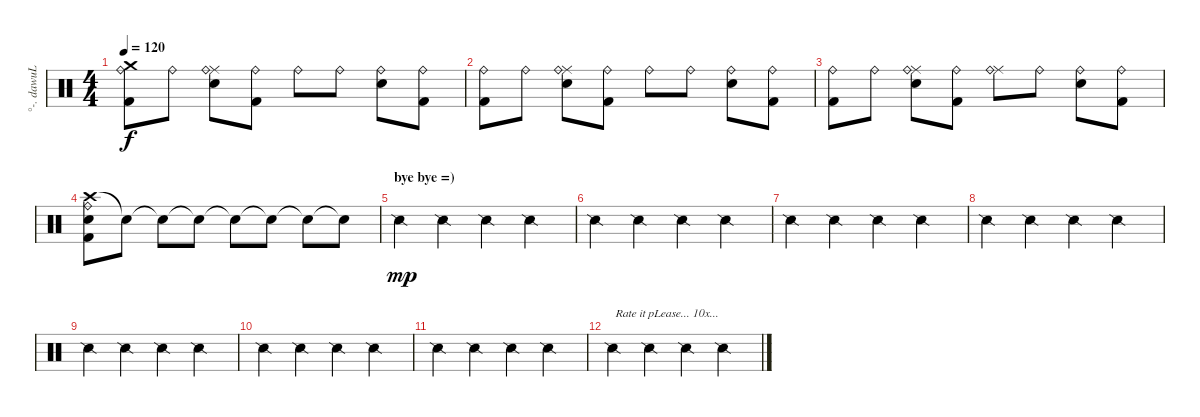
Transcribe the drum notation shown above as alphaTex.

\track ("°-. dawuL .-°" "°-. dawuL ") {instrument percussion}
\staff {score}
\articulation defaults
\ts (4 4)
\tempo 120
\clef neutral
\ks c
("Crash medium (hit)" "Kick (hit) 2" "Ride (bell)").8{dy f} "Ride (bell)".8 ("Ride (middle)" "Electric Snare (hit)" "Ride (bell)").8 ("Kick (hit) 2" "Ride (bell)").8 "Ride (bell)".8 "Ride (bell)".8 ("Electric Snare (hit)" "Ride (bell)").8 ("Kick (hit) 2" "Ride (bell)").8 |
("Kick (hit) 2" "Ride (bell)").8 "Ride (bell)".8 ("Ride (middle)" "Electric Snare (hit)" "Ride (bell)").8 ("Kick (hit) 2" "Ride (bell)").8 "Ride (bell)".8 "Ride (bell)".8 ("Electric Snare (hit)" "Ride (bell)").8 ("Kick (hit) 2" "Ride (bell)").8 |
("Kick (hit) 2" "Ride (bell)").8 "Ride (bell)".8 ("Ride (middle)" "Electric Snare (hit)" "Ride (bell)").8 ("Kick (hit) 2" "Ride (bell)").8 ("Ride (middle)" "Ride (bell)").8 "Ride (bell)".8 ("Electric Snare (hit)" "Ride (bell)").8 ("Kick (hit) 2" "Ride (bell)").8 |
("Crash high (hit)" "Electric Snare (hit)" "Kick (hit) 2" "Ride (bell)").8 "Snare (hit)"{t}.8 "Snare (hit)"{t}.8 "Snare (hit)"{t}.8 "Snare (hit)"{t}.8 "Snare (hit)"{t}.8 "Snare (hit)"{t}.8 "Snare (hit)"{t}.8 |
\section ("" "bye bye =)")
"Snare (side stick) 2".4{dy mp} "Snare (side stick) 2".4 "Snare (side stick) 2".4 "Snare (side stick) 2".4 |
"Snare (side stick) 2".4 "Snare (side stick) 2".4 "Snare (side stick) 2".4 "Snare (side stick) 2".4 |
"Snare (side stick) 2".4 "Snare (side stick) 2".4 "Snare (side stick) 2".4 "Snare (side stick) 2".4 |
"Snare (side stick) 2".4 "Snare (side stick) 2".4 "Snare (side stick) 2".4 "Snare (side stick) 2".4 |
"Snare (side stick) 2".4 "Snare (side stick) 2".4 "Snare (side stick) 2".4 "Snare (side stick) 2".4 |
"Snare (side stick) 2".4 "Snare (side stick) 2".4 "Snare (side stick) 2".4 "Snare (side stick) 2".4 |
"Snare (side stick) 2".4 "Snare (side stick) 2".4 "Snare (side stick) 2".4 "Snare (side stick) 2".4 |
"Snare (side stick) 2".4{txt "Rate it pLease... 10x..."} "Snare (side stick) 2".4 "Snare (side stick) 2".4 "Snare (side stick) 2".4
